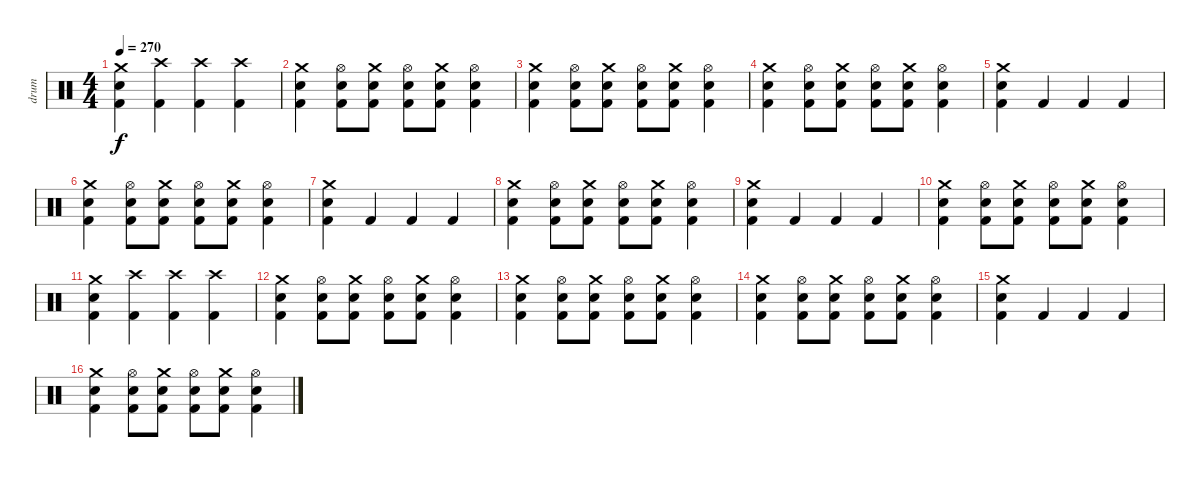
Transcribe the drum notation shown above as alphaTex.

\track ("drum" "drum") {instrument percussion}
\staff {score}
\articulation defaults
\ts (4 4)
\tempo 270
\clef neutral
\ks c
("Kick (hit) 2" "Snare (hit) 2" "Crash medium (hit)").4{dy f} ("Kick (hit) 2" "Crash high (hit)").4 ("Kick (hit) 2" "Crash high (hit)").4 ("Kick (hit) 2" "Crash high (hit)").4 |
("Kick (hit) 2" "Snare (hit) 2" "Crash medium (hit)").4 ("Kick (hit) 2" "Snare (hit) 2" "Hi-Hat (open)").8 ("Kick (hit) 2" "Snare (hit) 2" "Crash medium (hit)").8 ("Kick (hit) 2" "Snare (hit) 2" "Hi-Hat (open)").8 ("Kick (hit) 2" "Snare (hit) 2" "Crash medium (hit)").8 ("Kick (hit) 2" "Snare (hit) 2" "Hi-Hat (open)").4 |
("Kick (hit) 2" "Snare (hit) 2" "Crash medium (hit)").4 ("Kick (hit) 2" "Snare (hit) 2" "Hi-Hat (open)").8 ("Kick (hit) 2" "Snare (hit) 2" "Crash medium (hit)").8 ("Kick (hit) 2" "Snare (hit) 2" "Hi-Hat (open)").8 ("Kick (hit) 2" "Snare (hit) 2" "Crash medium (hit)").8 ("Kick (hit) 2" "Snare (hit) 2" "Hi-Hat (open)").4 |
("Kick (hit) 2" "Snare (hit) 2" "Crash medium (hit)").4 ("Kick (hit) 2" "Snare (hit) 2" "Hi-Hat (open)").8 ("Kick (hit) 2" "Snare (hit) 2" "Crash medium (hit)").8 ("Kick (hit) 2" "Snare (hit) 2" "Hi-Hat (open)").8 ("Kick (hit) 2" "Snare (hit) 2" "Crash medium (hit)").8 ("Kick (hit) 2" "Snare (hit) 2" "Hi-Hat (open)").4 |
("Kick (hit) 2" "Snare (hit) 2" "Crash medium (hit)").4 "Kick (hit) 2".4 "Kick (hit) 2".4 "Kick (hit) 2".4 |
("Kick (hit) 2" "Snare (hit) 2" "Crash medium (hit)").4 ("Kick (hit) 2" "Snare (hit) 2" "Hi-Hat (open)").8 ("Kick (hit) 2" "Snare (hit) 2" "Crash medium (hit)").8 ("Kick (hit) 2" "Snare (hit) 2" "Hi-Hat (open)").8 ("Kick (hit) 2" "Snare (hit) 2" "Crash medium (hit)").8 ("Kick (hit) 2" "Snare (hit) 2" "Hi-Hat (open)").4 |
("Kick (hit) 2" "Snare (hit) 2" "Crash medium (hit)").4 "Kick (hit) 2".4 "Kick (hit) 2".4 "Kick (hit) 2".4 |
("Kick (hit) 2" "Snare (hit) 2" "Crash medium (hit)").4 ("Kick (hit) 2" "Snare (hit) 2" "Hi-Hat (open)").8 ("Kick (hit) 2" "Snare (hit) 2" "Crash medium (hit)").8 ("Kick (hit) 2" "Snare (hit) 2" "Hi-Hat (open)").8 ("Kick (hit) 2" "Snare (hit) 2" "Crash medium (hit)").8 ("Kick (hit) 2" "Snare (hit) 2" "Hi-Hat (open)").4 |
("Kick (hit) 2" "Snare (hit) 2" "Crash medium (hit)").4 "Kick (hit) 2".4 "Kick (hit) 2".4 "Kick (hit) 2".4 |
("Kick (hit) 2" "Snare (hit) 2" "Crash medium (hit)").4 ("Kick (hit) 2" "Snare (hit) 2" "Hi-Hat (open)").8 ("Kick (hit) 2" "Snare (hit) 2" "Crash medium (hit)").8 ("Kick (hit) 2" "Snare (hit) 2" "Hi-Hat (open)").8 ("Kick (hit) 2" "Snare (hit) 2" "Crash medium (hit)").8 ("Kick (hit) 2" "Snare (hit) 2" "Hi-Hat (open)").4 |
("Kick (hit) 2" "Snare (hit) 2" "Crash medium (hit)").4 ("Kick (hit) 2" "Crash high (hit)").4 ("Kick (hit) 2" "Crash high (hit)").4 ("Kick (hit) 2" "Crash high (hit)").4 |
("Kick (hit) 2" "Snare (hit) 2" "Crash medium (hit)").4 ("Kick (hit) 2" "Snare (hit) 2" "Hi-Hat (open)").8 ("Kick (hit) 2" "Snare (hit) 2" "Crash medium (hit)").8 ("Kick (hit) 2" "Snare (hit) 2" "Hi-Hat (open)").8 ("Kick (hit) 2" "Snare (hit) 2" "Crash medium (hit)").8 ("Kick (hit) 2" "Snare (hit) 2" "Hi-Hat (open)").4 |
("Kick (hit) 2" "Snare (hit) 2" "Crash medium (hit)").4 ("Kick (hit) 2" "Snare (hit) 2" "Hi-Hat (open)").8 ("Kick (hit) 2" "Snare (hit) 2" "Crash medium (hit)").8 ("Kick (hit) 2" "Snare (hit) 2" "Hi-Hat (open)").8 ("Kick (hit) 2" "Snare (hit) 2" "Crash medium (hit)").8 ("Kick (hit) 2" "Snare (hit) 2" "Hi-Hat (open)").4 |
("Kick (hit) 2" "Snare (hit) 2" "Crash medium (hit)").4 ("Kick (hit) 2" "Snare (hit) 2" "Hi-Hat (open)").8 ("Kick (hit) 2" "Snare (hit) 2" "Crash medium (hit)").8 ("Kick (hit) 2" "Snare (hit) 2" "Hi-Hat (open)").8 ("Kick (hit) 2" "Snare (hit) 2" "Crash medium (hit)").8 ("Kick (hit) 2" "Snare (hit) 2" "Hi-Hat (open)").4 |
("Kick (hit) 2" "Snare (hit) 2" "Crash medium (hit)").4 "Kick (hit) 2".4 "Kick (hit) 2".4 "Kick (hit) 2".4 |
("Kick (hit) 2" "Snare (hit) 2" "Crash medium (hit)").4 ("Kick (hit) 2" "Snare (hit) 2" "Hi-Hat (open)").8 ("Kick (hit) 2" "Snare (hit) 2" "Crash medium (hit)").8 ("Kick (hit) 2" "Snare (hit) 2" "Hi-Hat (open)").8 ("Kick (hit) 2" "Snare (hit) 2" "Crash medium (hit)").8 ("Kick (hit) 2" "Snare (hit) 2" "Hi-Hat (open)").4
